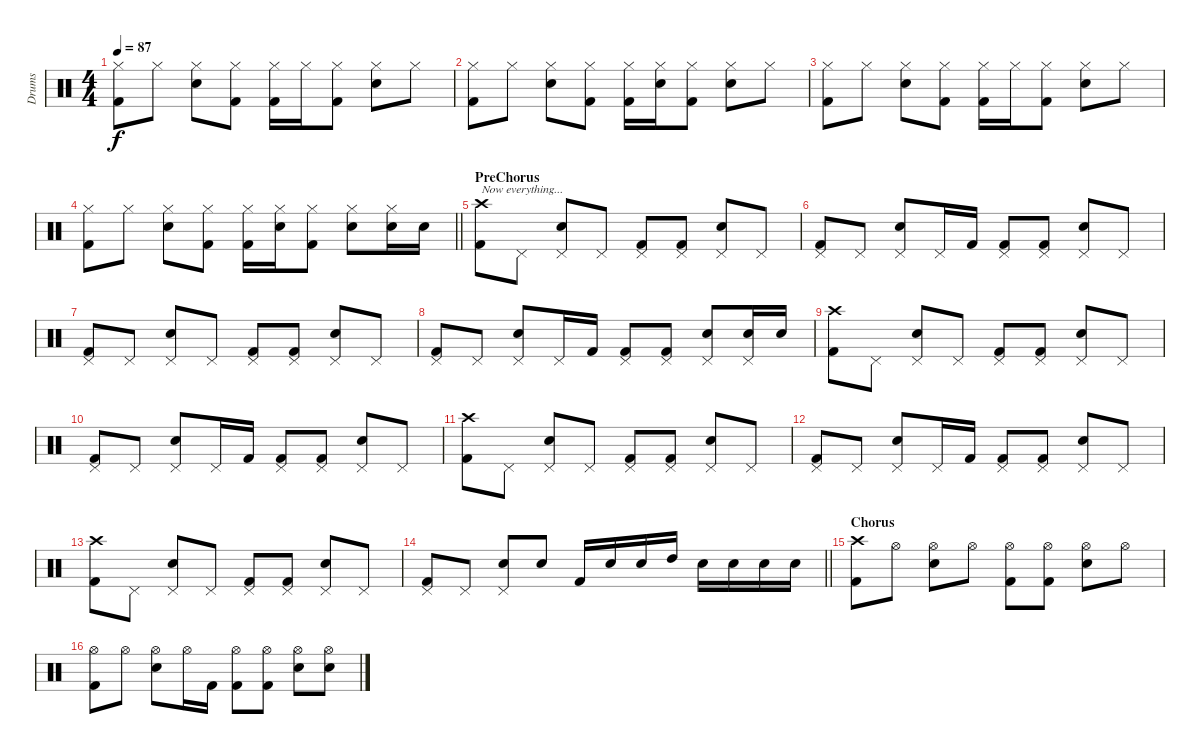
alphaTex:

\track ("Drums" "Drums") {instrument percussion}
\staff {score}
\articulation defaults
\ts (4 4)
\tempo 87
\clef neutral
\ks c
("Hi-Hat (closed)" "Kick (hit) 2").8{dy f} "Hi-Hat (closed)".8 ("Hi-Hat (closed)" "Electric Snare (hit)").8 ("Hi-Hat (closed)" "Kick (hit) 2").8 ("Hi-Hat (closed)" "Kick (hit) 2").16 "Hi-Hat (closed)".16 ("Hi-Hat (closed)" "Kick (hit) 2").8 ("Hi-Hat (closed)" "Electric Snare (hit)").8 "Hi-Hat (closed)".8 |
("Hi-Hat (closed)" "Kick (hit) 2").8 "Hi-Hat (closed)".8 ("Hi-Hat (closed)" "Electric Snare (hit)").8 ("Hi-Hat (closed)" "Kick (hit) 2").8 ("Hi-Hat (closed)" "Kick (hit) 2").16 ("Hi-Hat (closed)" "Electric Snare (hit)").16 ("Hi-Hat (closed)" "Kick (hit) 2").8 ("Hi-Hat (closed)" "Electric Snare (hit)").8 "Hi-Hat (closed)".8 |
("Hi-Hat (closed)" "Kick (hit) 2").8 "Hi-Hat (closed)".8 ("Hi-Hat (closed)" "Electric Snare (hit)").8 ("Hi-Hat (closed)" "Kick (hit) 2").8 ("Hi-Hat (closed)" "Kick (hit) 2").16 "Hi-Hat (closed)".16 ("Hi-Hat (closed)" "Kick (hit) 2").8 ("Hi-Hat (closed)" "Electric Snare (hit)").8 "Hi-Hat (closed)".8 |
\barLineRight lightlight
("Hi-Hat (closed)" "Kick (hit) 2").8 "Hi-Hat (closed)".8 ("Hi-Hat (closed)" "Electric Snare (hit)").8 ("Hi-Hat (closed)" "Kick (hit) 2").8 ("Hi-Hat (closed)" "Kick (hit) 2").16 ("Hi-Hat (closed)" "Electric Snare (hit)").16 ("Hi-Hat (closed)" "Kick (hit) 2").8 ("Hi-Hat (closed)" "Electric Snare (hit)").8 ("Hi-Hat (closed)" "Electric Snare (hit)").16 "Electric Snare (hit)".16 |
\section ("" "PreChorus")
("Crash high (hit)" "Kick (hit) 2").8{txt "Now everything..."} "Pedal Hi-Hat (hit)".8 ("Pedal Hi-Hat (hit)" "Snare (hit) 2").8 "Pedal Hi-Hat (hit)".8 ("Pedal Hi-Hat (hit)" "Kick (hit) 2").8 ("Pedal Hi-Hat (hit)" "Kick (hit) 2").8 ("Pedal Hi-Hat (hit)" "Snare (hit) 2").8 "Pedal Hi-Hat (hit)".8 |
("Pedal Hi-Hat (hit)" "Kick (hit) 2").8 "Pedal Hi-Hat (hit)".8 ("Pedal Hi-Hat (hit)" "Snare (hit) 2").8 "Pedal Hi-Hat (hit)".16 "Kick (hit) 2".16 ("Pedal Hi-Hat (hit)" "Kick (hit) 2").8 ("Pedal Hi-Hat (hit)" "Kick (hit) 2").8 ("Pedal Hi-Hat (hit)" "Snare (hit) 2").8 "Pedal Hi-Hat (hit)".8 |
("Pedal Hi-Hat (hit)" "Kick (hit) 2").8 "Pedal Hi-Hat (hit)".8 ("Pedal Hi-Hat (hit)" "Snare (hit) 2").8 "Pedal Hi-Hat (hit)".8 ("Pedal Hi-Hat (hit)" "Kick (hit) 2").8 ("Pedal Hi-Hat (hit)" "Kick (hit) 2").8 ("Pedal Hi-Hat (hit)" "Snare (hit) 2").8 "Pedal Hi-Hat (hit)".8 |
("Pedal Hi-Hat (hit)" "Kick (hit) 2").8 "Pedal Hi-Hat (hit)".8 ("Pedal Hi-Hat (hit)" "Snare (hit) 2").8 "Pedal Hi-Hat (hit)".16 "Kick (hit) 2".16 ("Pedal Hi-Hat (hit)" "Kick (hit) 2").8 ("Pedal Hi-Hat (hit)" "Kick (hit) 2").8 ("Pedal Hi-Hat (hit)" "Snare (hit) 2").8 ("Pedal Hi-Hat (hit)" "Snare (hit) 2").16 "Snare (hit) 2".16 |
("Crash high (hit)" "Kick (hit) 2").8 "Pedal Hi-Hat (hit)".8 ("Pedal Hi-Hat (hit)" "Snare (hit) 2").8 "Pedal Hi-Hat (hit)".8 ("Pedal Hi-Hat (hit)" "Kick (hit) 2").8 ("Pedal Hi-Hat (hit)" "Kick (hit) 2").8 ("Pedal Hi-Hat (hit)" "Snare (hit) 2").8 "Pedal Hi-Hat (hit)".8 |
("Pedal Hi-Hat (hit)" "Kick (hit) 2").8 "Pedal Hi-Hat (hit)".8 ("Pedal Hi-Hat (hit)" "Snare (hit) 2").8 "Pedal Hi-Hat (hit)".16 "Kick (hit) 2".16 ("Pedal Hi-Hat (hit)" "Kick (hit) 2").8 ("Pedal Hi-Hat (hit)" "Kick (hit) 2").8 ("Pedal Hi-Hat (hit)" "Snare (hit) 2").8 "Pedal Hi-Hat (hit)".8 |
("Crash high (hit)" "Kick (hit) 2").8 "Pedal Hi-Hat (hit)".8 ("Pedal Hi-Hat (hit)" "Snare (hit) 2").8 "Pedal Hi-Hat (hit)".8 ("Pedal Hi-Hat (hit)" "Kick (hit) 2").8 ("Pedal Hi-Hat (hit)" "Kick (hit) 2").8 ("Pedal Hi-Hat (hit)" "Snare (hit) 2").8 "Pedal Hi-Hat (hit)".8 |
("Pedal Hi-Hat (hit)" "Kick (hit) 2").8 "Pedal Hi-Hat (hit)".8 ("Pedal Hi-Hat (hit)" "Snare (hit) 2").8 "Pedal Hi-Hat (hit)".16 "Kick (hit) 2".16 ("Pedal Hi-Hat (hit)" "Kick (hit) 2").8 ("Pedal Hi-Hat (hit)" "Kick (hit) 2").8 ("Pedal Hi-Hat (hit)" "Snare (hit) 2").8 "Pedal Hi-Hat (hit)".8 |
("Crash high (hit)" "Kick (hit) 2").8 "Pedal Hi-Hat (hit)".8 ("Pedal Hi-Hat (hit)" "Snare (hit) 2").8 "Pedal Hi-Hat (hit)".8 ("Pedal Hi-Hat (hit)" "Kick (hit) 2").8 ("Pedal Hi-Hat (hit)" "Kick (hit) 2").8 ("Pedal Hi-Hat (hit)" "Snare (hit) 2").8 "Pedal Hi-Hat (hit)".8 |
\barLineRight lightlight
("Pedal Hi-Hat (hit)" "Kick (hit) 2").8 "Pedal Hi-Hat (hit)".8 ("Pedal Hi-Hat (hit)" "Snare (hit) 2").8 "Snare (hit) 2".8 "Kick (hit) 2".16 "Snare (hit) 2".16 "Snare (hit) 2".16 "High Tom (hit)".16 "Snare (hit) 2".16 "Snare (hit) 2".16 "Snare (hit) 2".16 "Snare (hit) 2".16 |
\section ("" "Chorus")
("Crash high (hit)" "Kick (hit) 2").8 "Hi-Hat (open)".8 ("Hi-Hat (open)" "Snare (hit) 2").8 "Hi-Hat (open)".8 ("Hi-Hat (open)" "Kick (hit) 2").8 ("Hi-Hat (open)" "Kick (hit) 2").8 ("Hi-Hat (open)" "Snare (hit) 2").8 "Hi-Hat (open)".8 |
("Hi-Hat (open)" "Kick (hit) 2").8 "Hi-Hat (open)".8 ("Hi-Hat (open)" "Snare (hit) 2").8 "Hi-Hat (open)".16 "Kick (hit) 2".16 ("Hi-Hat (open)" "Kick (hit) 2").8 ("Hi-Hat (open)" "Kick (hit) 2").8 ("Hi-Hat (open)" "Snare (hit) 2").8 ("Hi-Hat (open)" "Snare (hit) 2").8
